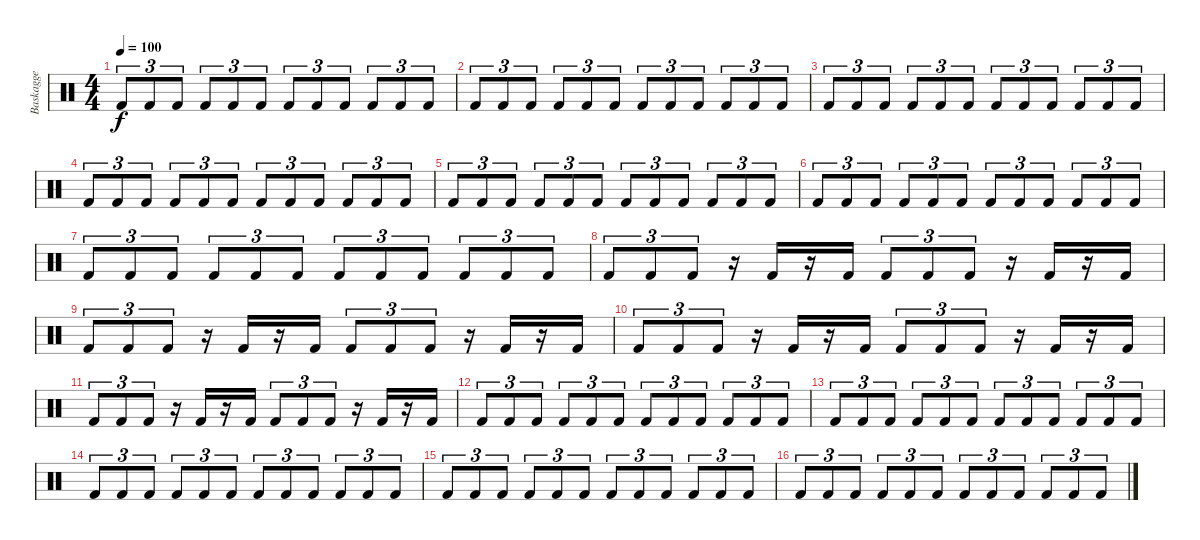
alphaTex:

\track ("Baskagge" "Baskagge") {instrument percussion}
\staff {score}
\articulation defaults
\ts (4 4)
\tempo 100
\clef neutral
\ks c "Kick (hit) 2".8{tu (3 2) dy f} "Kick (hit) 2".8{tu (3 2)} "Kick (hit) 2".8{tu (3 2)} "Kick (hit) 2".8{tu (3 2)} "Kick (hit) 2".8{tu (3 2)} "Kick (hit) 2".8{tu (3 2)} "Kick (hit) 2".8{tu (3 2)} "Kick (hit) 2".8{tu (3 2)} "Kick (hit) 2".8{tu (3 2)} "Kick (hit) 2".8{tu (3 2)} "Kick (hit) 2".8{tu (3 2)} "Kick (hit) 2".8{tu (3 2)}
|
"Kick (hit) 2".8{tu (3 2)} "Kick (hit) 2".8{tu (3 2)} "Kick (hit) 2".8{tu (3 2)} "Kick (hit) 2".8{tu (3 2)} "Kick (hit) 2".8{tu (3 2)} "Kick (hit) 2".8{tu (3 2)} "Kick (hit) 2".8{tu (3 2)} "Kick (hit) 2".8{tu (3 2)} "Kick (hit) 2".8{tu (3 2)} "Kick (hit) 2".8{tu (3 2)} "Kick (hit) 2".8{tu (3 2)} "Kick (hit) 2".8{tu (3 2)} |
"Kick (hit) 2".8{tu (3 2)} "Kick (hit) 2".8{tu (3 2)} "Kick (hit) 2".8{tu (3 2)} "Kick (hit) 2".8{tu (3 2)} "Kick (hit) 2".8{tu (3 2)} "Kick (hit) 2".8{tu (3 2)} "Kick (hit) 2".8{tu (3 2)} "Kick (hit) 2".8{tu (3 2)} "Kick (hit) 2".8{tu (3 2)} "Kick (hit) 2".8{tu (3 2)} "Kick (hit) 2".8{tu (3 2)} "Kick (hit) 2".8{tu (3 2)} |
"Kick (hit) 2".8{tu (3 2)} "Kick (hit) 2".8{tu (3 2)} "Kick (hit) 2".8{tu (3 2)} "Kick (hit) 2".8{tu (3 2)} "Kick (hit) 2".8{tu (3 2)} "Kick (hit) 2".8{tu (3 2)} "Kick (hit) 2".8{tu (3 2)} "Kick (hit) 2".8{tu (3 2)} "Kick (hit) 2".8{tu (3 2)} "Kick (hit) 2".8{tu (3 2)} "Kick (hit) 2".8{tu (3 2)} "Kick (hit) 2".8{tu (3 2)} |
"Kick (hit) 2".8{tu (3 2)} "Kick (hit) 2".8{tu (3 2)} "Kick (hit) 2".8{tu (3 2)} "Kick (hit) 2".8{tu (3 2)} "Kick (hit) 2".8{tu (3 2)} "Kick (hit) 2".8{tu (3 2)} "Kick (hit) 2".8{tu (3 2)} "Kick (hit) 2".8{tu (3 2)} "Kick (hit) 2".8{tu (3 2)} "Kick (hit) 2".8{tu (3 2)} "Kick (hit) 2".8{tu (3 2)} "Kick (hit) 2".8{tu (3 2)} |
"Kick (hit) 2".8{tu (3 2)} "Kick (hit) 2".8{tu (3 2)} "Kick (hit) 2".8{tu (3 2)} "Kick (hit) 2".8{tu (3 2)} "Kick (hit) 2".8{tu (3 2)} "Kick (hit) 2".8{tu (3 2)} "Kick (hit) 2".8{tu (3 2)} "Kick (hit) 2".8{tu (3 2)} "Kick (hit) 2".8{tu (3 2)} "Kick (hit) 2".8{tu (3 2)} "Kick (hit) 2".8{tu (3 2)} "Kick (hit) 2".8{tu (3 2)} |
"Kick (hit) 2".8{tu (3 2)} "Kick (hit) 2".8{tu (3 2)} "Kick (hit) 2".8{tu (3 2)} "Kick (hit) 2".8{tu (3 2)} "Kick (hit) 2".8{tu (3 2)} "Kick (hit) 2".8{tu (3 2)} "Kick (hit) 2".8{tu (3 2)} "Kick (hit) 2".8{tu (3 2)} "Kick (hit) 2".8{tu (3 2)} "Kick (hit) 2".8{tu (3 2)} "Kick (hit) 2".8{tu (3 2)} "Kick (hit) 2".8{tu (3 2)} |
"Kick (hit) 2".8{tu (3 2)} "Kick (hit) 2".8{tu (3 2)} "Kick (hit) 2".8{tu (3 2)} r.16 "Kick (hit) 2".16 r.16 "Kick (hit) 2".16 "Kick (hit) 2".8{tu (3 2)} "Kick (hit) 2".8{tu (3 2)} "Kick (hit) 2".8{tu (3 2)} r.16 "Kick (hit) 2".16 r.16 "Kick (hit) 2".16 |
"Kick (hit) 2".8{tu (3 2)} "Kick (hit) 2".8{tu (3 2)} "Kick (hit) 2".8{tu (3 2)} r.16 "Kick (hit) 2".16 r.16 "Kick (hit) 2".16 "Kick (hit) 2".8{tu (3 2)} "Kick (hit) 2".8{tu (3 2)} "Kick (hit) 2".8{tu (3 2)} r.16 "Kick (hit) 2".16 r.16 "Kick (hit) 2".16 |
"Kick (hit) 2".8{tu (3 2)} "Kick (hit) 2".8{tu (3 2)} "Kick (hit) 2".8{tu (3 2)} r.16 "Kick (hit) 2".16 r.16 "Kick (hit) 2".16 "Kick (hit) 2".8{tu (3 2)} "Kick (hit) 2".8{tu (3 2)} "Kick (hit) 2".8{tu (3 2)} r.16 "Kick (hit) 2".16 r.16 "Kick (hit) 2".16 |
"Kick (hit) 2".8{tu (3 2)} "Kick (hit) 2".8{tu (3 2)} "Kick (hit) 2".8{tu (3 2)} r.16 "Kick (hit) 2".16 r.16 "Kick (hit) 2".16 "Kick (hit) 2".8{tu (3 2)} "Kick (hit) 2".8{tu (3 2)} "Kick (hit) 2".8{tu (3 2)} r.16 "Kick (hit) 2".16 r.16 "Kick (hit) 2".16 |
"Kick (hit) 2".8{tu (3 2)} "Kick (hit) 2".8{tu (3 2)} "Kick (hit) 2".8{tu (3 2)} "Kick (hit) 2".8{tu (3 2)} "Kick (hit) 2".8{tu (3 2)} "Kick (hit) 2".8{tu (3 2)} "Kick (hit) 2".8{tu (3 2)} "Kick (hit) 2".8{tu (3 2)} "Kick (hit) 2".8{tu (3 2)} "Kick (hit) 2".8{tu (3 2)} "Kick (hit) 2".8{tu (3 2)} "Kick (hit) 2".8{tu (3 2)} |
"Kick (hit) 2".8{tu (3 2)} "Kick (hit) 2".8{tu (3 2)} "Kick (hit) 2".8{tu (3 2)} "Kick (hit) 2".8{tu (3 2)} "Kick (hit) 2".8{tu (3 2)} "Kick (hit) 2".8{tu (3 2)} "Kick (hit) 2".8{tu (3 2)} "Kick (hit) 2".8{tu (3 2)} "Kick (hit) 2".8{tu (3 2)} "Kick (hit) 2".8{tu (3 2)} "Kick (hit) 2".8{tu (3 2)} "Kick (hit) 2".8{tu (3 2)} |
"Kick (hit) 2".8{tu (3 2)} "Kick (hit) 2".8{tu (3 2)} "Kick (hit) 2".8{tu (3 2)} "Kick (hit) 2".8{tu (3 2)} "Kick (hit) 2".8{tu (3 2)} "Kick (hit) 2".8{tu (3 2)} "Kick (hit) 2".8{tu (3 2)} "Kick (hit) 2".8{tu (3 2)} "Kick (hit) 2".8{tu (3 2)} "Kick (hit) 2".8{tu (3 2)} "Kick (hit) 2".8{tu (3 2)} "Kick (hit) 2".8{tu (3 2)} |
"Kick (hit) 2".8{tu (3 2)} "Kick (hit) 2".8{tu (3 2)} "Kick (hit) 2".8{tu (3 2)} "Kick (hit) 2".8{tu (3 2)} "Kick (hit) 2".8{tu (3 2)} "Kick (hit) 2".8{tu (3 2)} "Kick (hit) 2".8{tu (3 2)} "Kick (hit) 2".8{tu (3 2)} "Kick (hit) 2".8{tu (3 2)} "Kick (hit) 2".8{tu (3 2)} "Kick (hit) 2".8{tu (3 2)} "Kick (hit) 2".8{tu (3 2)} |
"Kick (hit) 2".8{tu (3 2)} "Kick (hit) 2".8{tu (3 2)} "Kick (hit) 2".8{tu (3 2)} "Kick (hit) 2".8{tu (3 2)} "Kick (hit) 2".8{tu (3 2)} "Kick (hit) 2".8{tu (3 2)} "Kick (hit) 2".8{tu (3 2)} "Kick (hit) 2".8{tu (3 2)} "Kick (hit) 2".8{tu (3 2)} "Kick (hit) 2".8{tu (3 2)} "Kick (hit) 2".8{tu (3 2)} "Kick (hit) 2".8{tu (3 2)}
